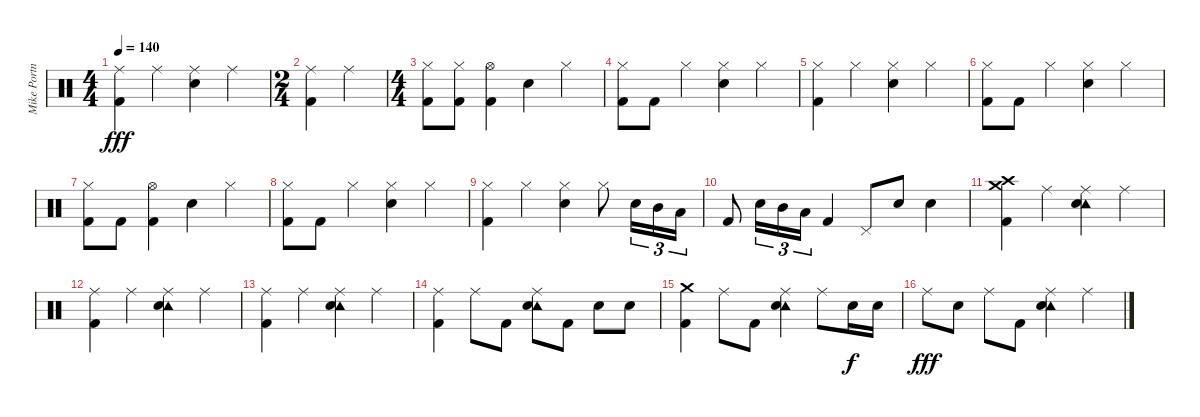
\track ("Mike Portnoy" "Mike Portn") {instrument percussion}
\staff {score}
\articulation defaults
\ts (4 4)
\tempo 140
\clef neutral
\ks c
("Ride (middle)" "Kick (hit) 2").4{dy fff} "Ride (middle)".4 ("Ride (middle)" "Snare (hit) 2").4 "Ride (middle)".4 |
\ts (2 4)
("Ride (middle)" "Kick (hit) 2").4 "Ride (middle)".4 |
\ts (4 4)
("Hi-Hat (closed)" "Kick (hit) 2").8 ("Hi-Hat (closed)" "Kick (hit) 2").8 ("Hi-Hat (open)" "Kick (hit) 2").4 "Snare (hit) 2".4 "Hi-Hat (closed)".4 |
("Hi-Hat (closed)" "Kick (hit) 2").8 "Kick (hit) 2".8 "Hi-Hat (closed)".4 ("Hi-Hat (closed)" "Snare (hit) 2").4 "Hi-Hat (closed)".4 |
("Hi-Hat (closed)" "Kick (hit) 2").4 "Hi-Hat (closed)".4 ("Hi-Hat (closed)" "Snare (hit) 2").4 "Hi-Hat (closed)".4 |
("Hi-Hat (closed)" "Kick (hit) 2").8 "Kick (hit) 2".8 "Hi-Hat (closed)".4 ("Hi-Hat (closed)" "Snare (hit) 2").4 "Hi-Hat (closed)".4 |
("Hi-Hat (closed)" "Kick (hit) 2").8 "Kick (hit) 2".8 ("Hi-Hat (open)" "Kick (hit) 2").4 "Snare (hit) 2".4 "Hi-Hat (closed)".4 |
("Hi-Hat (closed)" "Kick (hit) 2").8 "Kick (hit) 2".8 "Hi-Hat (closed)".4 ("Hi-Hat (closed)" "Snare (hit) 2").4 "Hi-Hat (closed)".4 |
("Hi-Hat (closed)" "Kick (hit) 2").4 "Hi-Hat (closed)".4 ("Hi-Hat (closed)" "Snare (hit) 2").4 "Hi-Hat (closed)".8 "Snare (hit) 2".16{tu (3 2)} "Mid Tom (hit)".16{tu (3 2)} "Low Tom (hit)".16{tu (3 2)} |
"Kick (hit) 2".8 "Snare (hit) 2".16{tu (3 2)} "Mid Tom (hit)".16{tu (3 2)} "Low Tom (hit)".16{tu (3 2)} "Kick (hit) 2".4 "Pedal Hi-Hat (hit)".8 "Snare (hit) 2".8 "Snare (hit) 2".4 |
("Crash high (hit)" "Crash medium (hit)" "Kick (hit) 2").4 "Ride (middle)".4 ("Tambourine (hit)" "Ride (middle)" "Snare (hit) 2").4 "Ride (middle)".4 |
("Ride (middle)" "Kick (hit) 2").4 "Ride (middle)".4 ("Tambourine (hit)" "Ride (middle)" "Snare (hit) 2").4 "Ride (middle)".4 |
("Ride (middle)" "Kick (hit) 2").4 "Ride (middle)".4 ("Tambourine (hit)" "Ride (middle)" "Snare (hit) 2").4 "Ride (middle)".4 |
("Ride (middle)" "Kick (hit) 2").4 "Ride (middle)".8 "Kick (hit) 2".8 ("Tambourine (hit)" "Ride (middle)" "Snare (hit) 2").8 "Kick (hit) 2".8 "Snare (hit) 2".8 "Snare (hit) 2".8 |
("Crash medium (hit)" "Kick (hit) 2").4 "Ride (middle)".8 "Kick (hit) 2".8 ("Tambourine (hit)" "Ride (middle)" "Snare (hit) 2").4 "Ride (middle)".8 "Snare (hit) 2".16{dy f} "Snare (hit) 2".16 |
"Ride (middle)".8{dy fff} "Snare (hit) 2".8 "Ride (middle)".8 "Kick (hit) 2".8 ("Tambourine (hit)" "Ride (middle)" "Snare (hit) 2").4 "Ride (middle)".4
